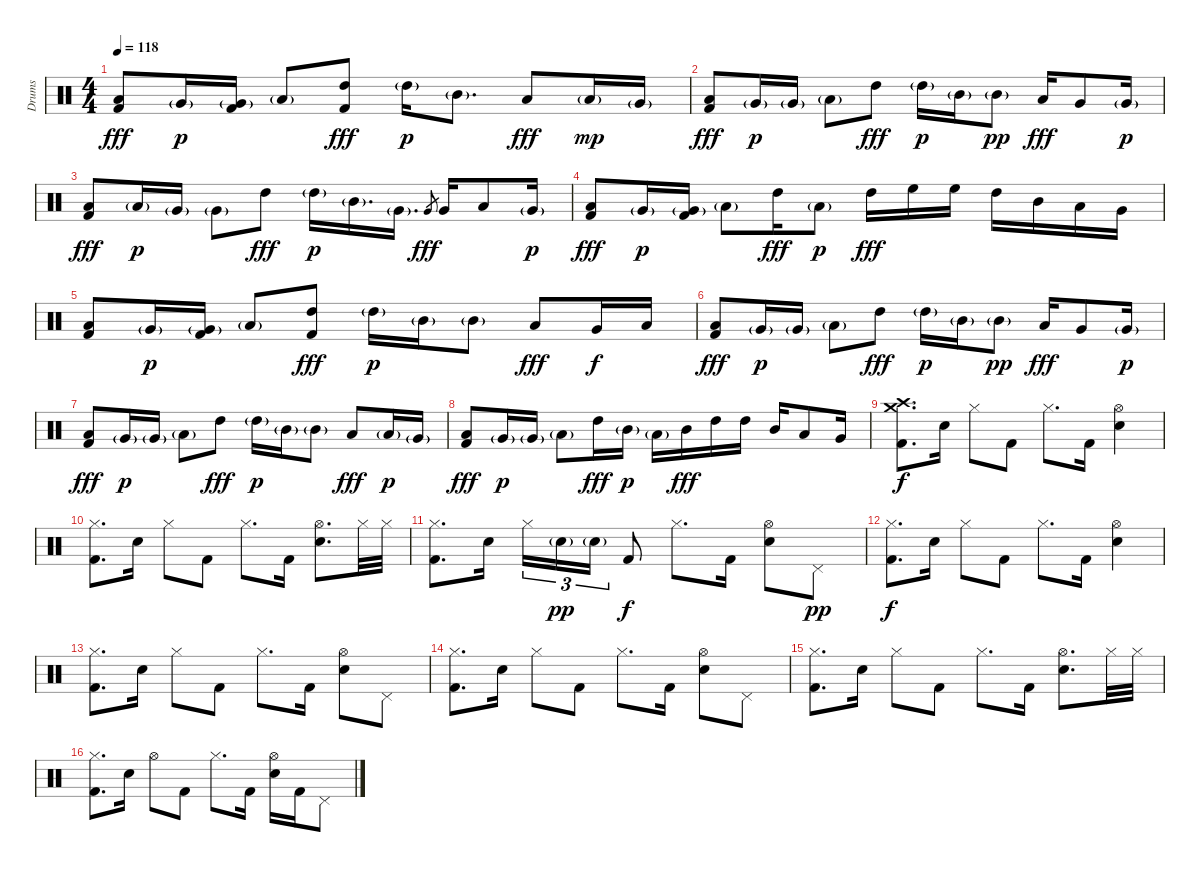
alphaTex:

\track ("Drums" "Drums") {instrument percussion}
\staff {score}
\articulation defaults
\ts (4 4)
\tempo 118
\clef neutral
\ks c
("Low Floor Tom (hit)" "Kick (hit) 2").8{dy fff} "Very Low Tom (hit)"{g}.16{dy p} ("Very Low Tom (hit)"{g} "Kick (hit) 2").16 "Low Floor Tom (hit)"{g}.8 ("High Tom (hit)" "Kick (hit) 2").8{dy fff} "High Tom (hit)"{g}.16{dy p} "Mid Tom (hit)"{g}.8{d} "Low Tom (hit)".8{dy fff} "Low Tom (hit)"{g}.16{dy mp} "Very Low Tom (hit)"{g}.16 |
("Low Floor Tom (hit)" "Kick (hit) 2").8{dy fff} "Very Low Tom (hit)"{g}.16{dy p} "Very Low Tom (hit)"{g}.16 "Low Floor Tom (hit)"{g}.8 "High Tom (hit)".8{dy fff} "High Tom (hit)"{g}.16{dy p} "Mid Tom (hit)"{g}.16 "Mid Tom (hit)"{g}.8{dy pp} "Low Tom (hit)".16{dy fff} "Very Low Tom (hit)".8 "Very Low Tom (hit)"{g}.16{dy p} |
("Low Floor Tom (hit)" "Kick (hit) 2").8{dy fff} "Low Floor Tom (hit)"{g}.16{dy p} "Very Low Tom (hit)"{g}.16 "Very Low Tom (hit)"{g}.8 "High Tom (hit)".8{dy fff} "High Tom (hit)"{g}.16{dy p} "Mid Tom (hit)"{g}.16{d} "Very Low Tom (hit)"{g}.16{d} "Very Low Tom (hit)".8{gr dy fff} "Very Low Tom (hit)".16 "Low Tom (hit)".8 "Very Low Tom (hit)"{g}.16{dy p} |
("Low Floor Tom (hit)" "Kick (hit) 2").8{dy fff} "Very Low Tom (hit)"{g}.16{dy p} ("Very Low Tom (hit)"{g} "Kick (hit) 2").16 "Low Floor Tom (hit)"{g}.8 "High Tom (hit)".16{dy fff} "Low Tom (hit)"{g}.8{dy p} "High Tom (hit)".16{dy fff} "High Floor Tom (hit)".16 "High Floor Tom (hit)".16 "High Tom (hit)".16 "Mid Tom (hit)".16 "Low Tom (hit)".16 "Very Low Tom (hit)".16 |
("Low Floor Tom (hit)" "Kick (hit) 2").8 "Very Low Tom (hit)"{g}.16{dy p} ("Very Low Tom (hit)"{g} "Kick (hit) 2").16 "Low Floor Tom (hit)"{g}.8 ("High Tom (hit)" "Kick (hit) 2").8{dy fff} "High Tom (hit)"{g}.16{dy p} "Mid Tom (hit)"{g}.16 "Mid Tom (hit)"{g}.8 "Low Tom (hit)".8{dy fff} "Very Low Tom (hit)".16{dy f} "Low Tom (hit)".16 |
("Low Floor Tom (hit)" "Kick (hit) 2").8{dy fff} "Very Low Tom (hit)"{g}.16{dy p} "Very Low Tom (hit)"{g}.16 "Low Floor Tom (hit)"{g}.8 "High Tom (hit)".8{dy fff} "High Tom (hit)"{g}.16{dy p} "Mid Tom (hit)"{g}.16 "Mid Tom (hit)"{g}.8{dy pp} "Low Tom (hit)".16{dy fff} "Very Low Tom (hit)".8 "Very Low Tom (hit)"{g}.16{dy p} |
("Low Floor Tom (hit)" "Kick (hit) 2").8{dy fff} "Very Low Tom (hit)"{g}.16{dy p} "Very Low Tom (hit)"{g}.16 "Low Floor Tom (hit)"{g}.8 "High Tom (hit)".8{dy fff} "High Tom (hit)"{g}.16{dy p} "Mid Tom (hit)"{g}.16 "Mid Tom (hit)"{g}.8 "Low Tom (hit)".8{dy fff} "Low Tom (hit)"{g}.16{dy p} "Very Low Tom (hit)"{g}.16 |
("Low Floor Tom (hit)" "Kick (hit) 2").8{dy fff} "Very Low Tom (hit)"{g}.16{dy p} "Very Low Tom (hit)"{g}.16 "Low Floor Tom (hit)"{g}.8 "High Tom (hit)".16{dy fff} "Mid Tom (hit)"{g}.16{dy p} "Low Tom (hit)"{g}.16 "Mid Tom (hit)".16{dy fff} "High Tom (hit)".16 "High Tom (hit)".16 "Mid Tom (hit)".16 "Low Tom (hit)".8 "Very Low Tom (hit)".16 |
("Crash medium (hit)" "Crash high (hit)" "Kick (hit) 2").8{d dy f} "Electric Snare (hit)".16 "Hi-Hat (closed)".8 "Kick (hit) 2".8 "Hi-Hat (closed)".8{d} "Kick (hit) 2".16 ("Hi-Hat (open)" "Electric Snare (hit)").4 |
("Hi-Hat (closed)" "Kick (hit) 2").8{d} "Electric Snare (hit)".16 "Hi-Hat (closed)".8 "Kick (hit) 2".8 "Hi-Hat (closed)".8{d} "Kick (hit) 2".16 ("Hi-Hat (open)" "Electric Snare (hit)").8{d} "Hi-Hat (closed)".32 "Hi-Hat (closed)".32 |
("Hi-Hat (closed)" "Kick (hit) 2").8{d} "Electric Snare (hit)".16 "Hi-Hat (closed)".16{tu (3 2)} "Electric Snare (hit)"{g}.16{tu (3 2) dy pp} "Electric Snare (hit)"{g}.16{tu (3 2)} "Kick (hit) 2".8{dy f} "Hi-Hat (closed)".8{d} "Kick (hit) 2".16 ("Hi-Hat (open)" "Electric Snare (hit)").8 "Pedal Hi-Hat (hit)".8{dy pp} |
("Hi-Hat (closed)" "Kick (hit) 2").8{d dy f} "Electric Snare (hit)".16 "Hi-Hat (closed)".8 "Kick (hit) 2".8 "Hi-Hat (closed)".8{d} "Kick (hit) 2".16 ("Hi-Hat (open)" "Electric Snare (hit)").4 |
("Hi-Hat (closed)" "Kick (hit) 2").8{d} "Electric Snare (hit)".16 "Hi-Hat (closed)".8 "Kick (hit) 2".8 "Hi-Hat (closed)".8{d} "Kick (hit) 2".16 ("Hi-Hat (open)" "Electric Snare (hit)").8 "Pedal Hi-Hat (hit)".8 |
("Hi-Hat (closed)" "Kick (hit) 2").8{d} "Electric Snare (hit)".16 "Hi-Hat (closed)".8 "Kick (hit) 2".8 "Hi-Hat (closed)".8{d} "Kick (hit) 2".16 ("Hi-Hat (open)" "Electric Snare (hit)").8 "Pedal Hi-Hat (hit)".8 |
("Hi-Hat (closed)" "Kick (hit) 2").8{d} "Electric Snare (hit)".16 "Hi-Hat (closed)".8 "Kick (hit) 2".8 "Hi-Hat (closed)".8{d} "Kick (hit) 2".16 ("Hi-Hat (open)" "Electric Snare (hit)").8{d} "Hi-Hat (closed)".32 "Hi-Hat (closed)".32 |
("Hi-Hat (closed)" "Kick (hit) 2").8{d} "Electric Snare (hit)".16 "Hi-Hat (open)".8 "Kick (hit) 2".8 "Hi-Hat (closed)".8{d} "Kick (hit) 2".16 ("Hi-Hat (open)" "Electric Snare (hit)").16 "Kick (hit) 2".16 "Pedal Hi-Hat (hit)".8
